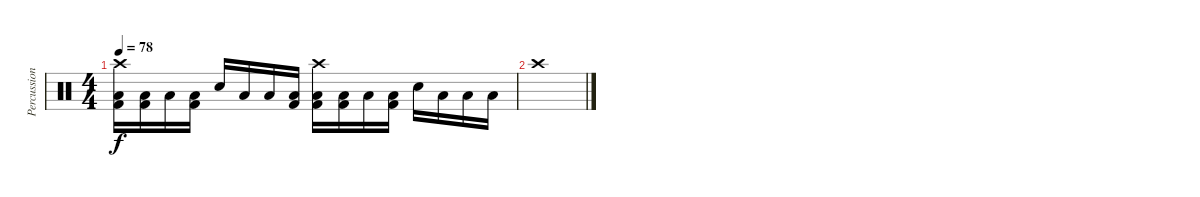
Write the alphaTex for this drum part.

\track ("Percussion" "Percussion") {instrument percussion}
\staff {score}
\articulation defaults
\ts (4 4)
\tempo 78
\clef neutral
\ks c
("Crash high (hit)" "Low Floor Tom (hit)" "Kick (hit) 2").16{dy f} ("Low Floor Tom (hit)" "Kick (hit) 2").16 "Low Floor Tom (hit)".16 ("Low Floor Tom (hit)" "Kick (hit) 2").16 "Snare (hit) 2".16 "Low Floor Tom (hit)".16 "Low Floor Tom (hit)".16 ("Low Floor Tom (hit)" "Kick (hit) 2").16 ("Crash high (hit)" "Low Floor Tom (hit)" "Kick (hit) 2").16 ("Low Floor Tom (hit)" "Kick (hit) 2").16 "Low Floor Tom (hit)".16 ("Low Floor Tom (hit)" "Kick (hit) 2").16 "Snare (hit) 2".16 "Low Floor Tom (hit)".16 "Low Floor Tom (hit)".16 "Low Floor Tom (hit)".16 |
"Crash high (hit)".1
